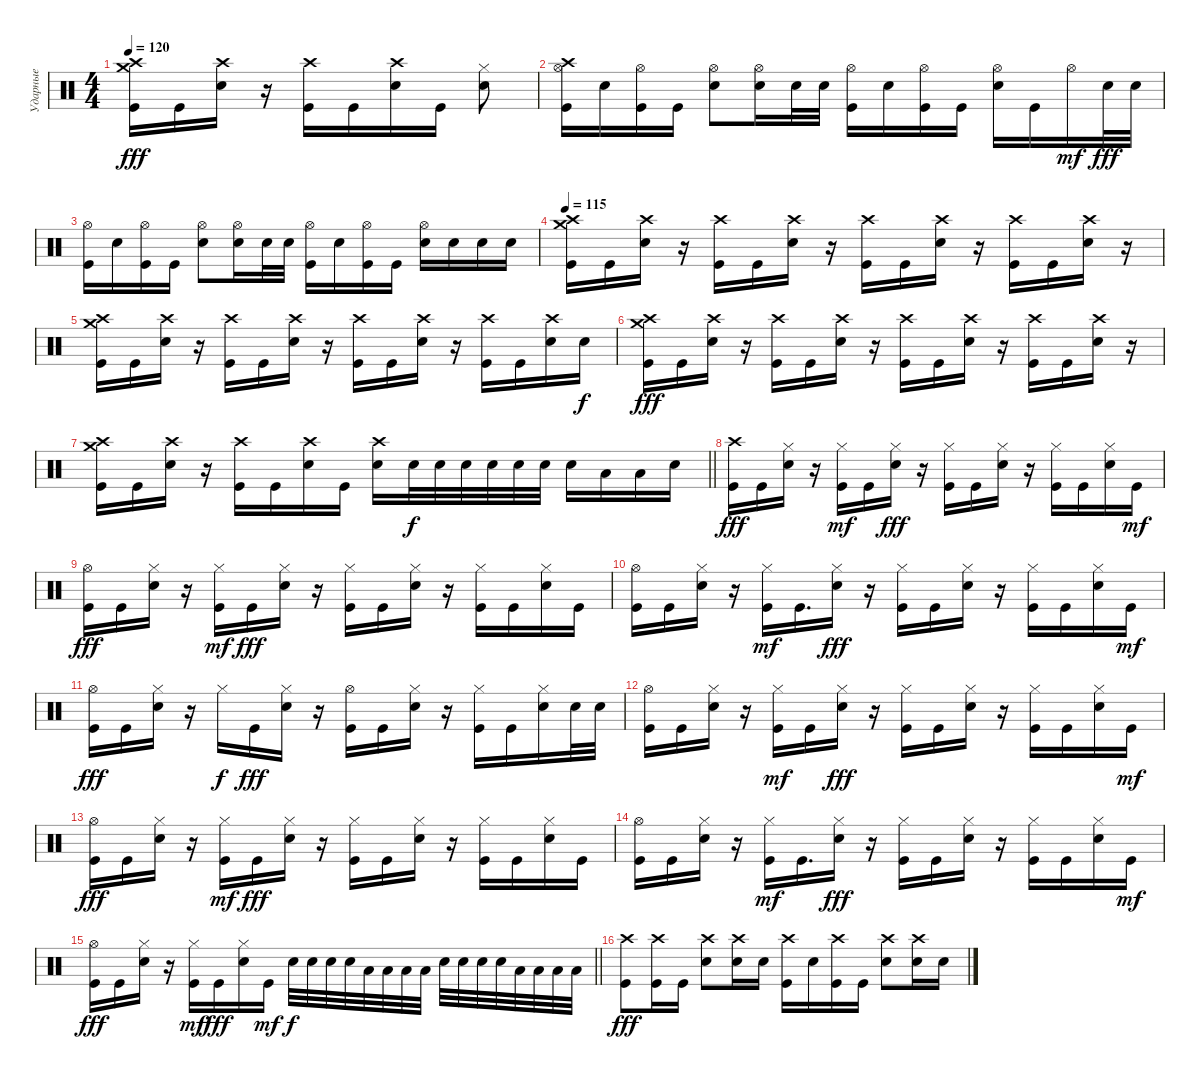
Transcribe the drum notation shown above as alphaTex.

\track ("Ударные" "Ударные") {instrument percussion}
\staff {score}
\articulation defaults
\ts (4 4)
\tempo 120
\clef neutral
\ks c
("Crash medium (hit)" "Crash high (hit)" "Kick (hit)").16{dy fff} "Kick (hit)".16 ("Crash high (hit)" "Electric Snare (hit)").16 r.16 ("Crash high (hit)" "Kick (hit)").16 "Kick (hit)".16 ("Crash high (hit)" "Electric Snare (hit)").16 "Kick (hit)".16 ("Hi-Hat (closed)" "Electric Snare (hit)").8 |
("Crash high (hit)" "Hi-Hat (open)" "Kick (hit)").16 "Electric Snare (hit)".16 ("Hi-Hat (open)" "Kick (hit)").16 "Kick (hit)".16 ("Hi-Hat (open)" "Electric Snare (hit)").8 ("Hi-Hat (open)" "Electric Snare (hit)").16 "Electric Snare (hit)".32 "Electric Snare (hit)".32 ("Hi-Hat (open)" "Kick (hit)").16 "Electric Snare (hit)".16 ("Hi-Hat (open)" "Kick (hit)").16 "Kick (hit)".16 ("Hi-Hat (open)" "Electric Snare (hit)").16 "Kick (hit)".16 "Hi-Hat (open)".16{dy mf} "Electric Snare (hit)".32{dy fff} "Electric Snare (hit)".32 |
("Hi-Hat (open)" "Kick (hit)").16 "Electric Snare (hit)".16 ("Hi-Hat (open)" "Kick (hit)").16 "Kick (hit)".16 ("Hi-Hat (open)" "Electric Snare (hit)").8 ("Hi-Hat (open)" "Electric Snare (hit)").16 "Electric Snare (hit)".32 "Electric Snare (hit)".32 ("Hi-Hat (open)" "Kick (hit)").16 "Electric Snare (hit)".16 ("Hi-Hat (open)" "Kick (hit)").16 "Kick (hit)".16 ("Hi-Hat (open)" "Electric Snare (hit)").16 "Electric Snare (hit)".16 "Electric Snare (hit)".16 "Electric Snare (hit)".16 |
\tempo 115
("Crash medium (hit)" "Crash high (hit)" "Kick (hit)").16 "Kick (hit)".16 ("Crash high (hit)" "Electric Snare (hit)").16 r.16 ("Crash high (hit)" "Kick (hit)").16 "Kick (hit)".16 ("Crash high (hit)" "Electric Snare (hit)").16 r.16 ("Crash high (hit)" "Kick (hit)").16 "Kick (hit)".16 ("Crash high (hit)" "Electric Snare (hit)").16 r.16 ("Crash high (hit)" "Kick (hit)").16 "Kick (hit)".16 ("Crash high (hit)" "Electric Snare (hit)").16 r.16 |
("Crash medium (hit)" "Crash high (hit)" "Kick (hit)").16 "Kick (hit)".16 ("Crash high (hit)" "Electric Snare (hit)").16 r.16 ("Crash high (hit)" "Kick (hit)").16 "Kick (hit)".16 ("Crash high (hit)" "Electric Snare (hit)").16 r.16 ("Crash high (hit)" "Kick (hit)").16 "Kick (hit)".16 ("Crash high (hit)" "Electric Snare (hit)").16 r.16 ("Crash high (hit)" "Kick (hit)").16 "Kick (hit)".16 ("Crash high (hit)" "Electric Snare (hit)").16 "Electric Snare (hit)".16{dy f} |
("Crash medium (hit)" "Crash high (hit)" "Kick (hit)").16{dy fff} "Kick (hit)".16 ("Crash high (hit)" "Electric Snare (hit)").16 r.16 ("Crash high (hit)" "Kick (hit)").16 "Kick (hit)".16 ("Crash high (hit)" "Electric Snare (hit)").16 r.16 ("Crash high (hit)" "Kick (hit)").16 "Kick (hit)".16 ("Crash high (hit)" "Electric Snare (hit)").16 r.16 ("Crash high (hit)" "Kick (hit)").16 "Kick (hit)".16 ("Crash high (hit)" "Electric Snare (hit)").16 r.16 |
\barLineRight lightlight
("Crash medium (hit)" "Crash high (hit)" "Kick (hit)").16 "Kick (hit)".16 ("Crash high (hit)" "Electric Snare (hit)").16 r.16 ("Crash high (hit)" "Kick (hit)").16 "Kick (hit)".16 ("Crash high (hit)" "Electric Snare (hit)").16 "Kick (hit)".16 ("Crash high (hit)" "Electric Snare (hit)").16 "Electric Snare (hit)".32{dy f} "Electric Snare (hit)".32 "Electric Snare (hit)".32 "Electric Snare (hit)".32 "Electric Snare (hit)".32 "Electric Snare (hit)".32 "Electric Snare (hit)".16 "Low Tom (hit)".16 "Low Floor Tom (hit)".16 "Electric Snare (hit)".16 |
("Crash high (hit)" "Kick (hit)").16{dy fff} "Kick (hit)".16 ("Hi-Hat (closed)" "Electric Snare (hit)").16 r.16 ("Hi-Hat (closed)" "Kick (hit)").16{dy mf} "Kick (hit)".16 ("Hi-Hat (closed)" "Electric Snare (hit)").16{dy fff} r.16 ("Hi-Hat (closed)" "Kick (hit)").16 "Kick (hit)".16 ("Hi-Hat (closed)" "Electric Snare (hit)").16 r.16 ("Hi-Hat (closed)" "Kick (hit)").16 "Kick (hit)".16 ("Hi-Hat (closed)" "Electric Snare (hit)").16 "Kick (hit)".16{dy mf} |
("Hi-Hat (open)" "Kick (hit)").16{dy fff} "Kick (hit)".16 ("Hi-Hat (closed)" "Electric Snare (hit)").16 r.16 ("Hi-Hat (closed)" "Kick (hit)").16{dy mf} "Kick (hit)".16{dy fff} ("Hi-Hat (closed)" "Electric Snare (hit)").16 r.16 ("Hi-Hat (closed)" "Kick (hit)").16 "Kick (hit)".16 ("Hi-Hat (closed)" "Electric Snare (hit)").16 r.16 ("Hi-Hat (closed)" "Kick (hit)").16 "Kick (hit)".16 ("Hi-Hat (closed)" "Electric Snare (hit)").16 "Kick (hit)".16 |
("Hi-Hat (open)" "Kick (hit)").16 "Kick (hit)".16 ("Hi-Hat (closed)" "Electric Snare (hit)").16 r.16 ("Hi-Hat (closed)" "Kick (hit)").16{dy mf} "Kick (hit)".16{d} ("Hi-Hat (closed)" "Electric Snare (hit)").16{dy fff} r.16 ("Hi-Hat (closed)" "Kick (hit)").16 "Kick (hit)".16 ("Hi-Hat (closed)" "Electric Snare (hit)").16 r.16 ("Hi-Hat (closed)" "Kick (hit)").16 "Kick (hit)".16 ("Hi-Hat (closed)" "Electric Snare (hit)").16 "Kick (hit)".16{dy mf} |
("Hi-Hat (open)" "Kick (hit)").16{dy fff} "Kick (hit)".16 ("Hi-Hat (closed)" "Electric Snare (hit)").16 r.16 "Hi-Hat (closed)".16{dy f} "Kick (hit)".16{dy fff} ("Hi-Hat (closed)" "Electric Snare (hit)").16 r.16 ("Hi-Hat (open)" "Kick (hit)").16 "Kick (hit)".16 ("Hi-Hat (closed)" "Electric Snare (hit)").16 r.16 ("Hi-Hat (closed)" "Kick (hit)").16 "Kick (hit)".16 ("Hi-Hat (closed)" "Electric Snare (hit)").16 "Electric Snare (hit)".32 "Electric Snare (hit)".32 |
("Hi-Hat (open)" "Kick (hit)").16 "Kick (hit)".16 ("Hi-Hat (closed)" "Electric Snare (hit)").16 r.16 ("Hi-Hat (closed)" "Kick (hit)").16{dy mf} "Kick (hit)".16 ("Hi-Hat (closed)" "Electric Snare (hit)").16{dy fff} r.16 ("Hi-Hat (closed)" "Kick (hit)").16 "Kick (hit)".16 ("Hi-Hat (closed)" "Electric Snare (hit)").16 r.16 ("Hi-Hat (closed)" "Kick (hit)").16 "Kick (hit)".16 ("Hi-Hat (closed)" "Electric Snare (hit)").16 "Kick (hit)".16{dy mf} |
("Hi-Hat (open)" "Kick (hit)").16{dy fff} "Kick (hit)".16 ("Hi-Hat (closed)" "Electric Snare (hit)").16 r.16 ("Hi-Hat (closed)" "Kick (hit)").16{dy mf} "Kick (hit)".16{dy fff} ("Hi-Hat (closed)" "Electric Snare (hit)").16 r.16 ("Hi-Hat (closed)" "Kick (hit)").16 "Kick (hit)".16 ("Hi-Hat (closed)" "Electric Snare (hit)").16 r.16 ("Hi-Hat (closed)" "Kick (hit)").16 "Kick (hit)".16 ("Hi-Hat (closed)" "Electric Snare (hit)").16 "Kick (hit)".16 |
("Hi-Hat (open)" "Kick (hit)").16 "Kick (hit)".16 ("Hi-Hat (closed)" "Electric Snare (hit)").16 r.16 ("Hi-Hat (closed)" "Kick (hit)").16{dy mf} "Kick (hit)".16{d} ("Hi-Hat (closed)" "Electric Snare (hit)").16{dy fff} r.16 ("Hi-Hat (closed)" "Kick (hit)").16 "Kick (hit)".16 ("Hi-Hat (closed)" "Electric Snare (hit)").16 r.16 ("Hi-Hat (closed)" "Kick (hit)").16 "Kick (hit)".16 ("Hi-Hat (closed)" "Electric Snare (hit)").16 "Kick (hit)".16{dy mf} |
\barLineRight lightlight
("Hi-Hat (open)" "Kick (hit)").16{dy fff} "Kick (hit)".16 ("Hi-Hat (closed)" "Electric Snare (hit)").16 r.16 ("Hi-Hat (closed)" "Kick (hit)").16{dy mf} "Kick (hit)".16{dy fff} ("Hi-Hat (closed)" "Electric Snare (hit)").16 "Kick (hit)".16{dy mf} "Electric Snare (hit)".32{dy f} "Electric Snare (hit)".32 "Electric Snare (hit)".32 "Electric Snare (hit)".32 "Low Tom (hit)".32 "Low Tom (hit)".32 "Low Tom (hit)".32 "Low Tom (hit)".32 "Electric Snare (hit)".32 "Electric Snare (hit)".32 "Electric Snare (hit)".32 "Electric Snare (hit)".32 "Low Tom (hit)".32 "Low Tom (hit)".32 "Low Tom (hit)".32 "Low Tom (hit)".32 |
("Crash high (hit)" "Kick (hit)").8{dy fff} ("Crash high (hit)" "Kick (hit)").16 "Kick (hit)".16 ("Crash high (hit)" "Electric Snare (hit)").8 ("Crash high (hit)" "Electric Snare (hit)").16 "Electric Snare (hit)".16 ("Crash high (hit)" "Kick (hit)").16 "Electric Snare (hit)".16 ("Crash high (hit)" "Kick (hit)").16 "Kick (hit)".16 ("Crash high (hit)" "Electric Snare (hit)").8 ("Crash high (hit)" "Electric Snare (hit)").16 "Electric Snare (hit)".16
